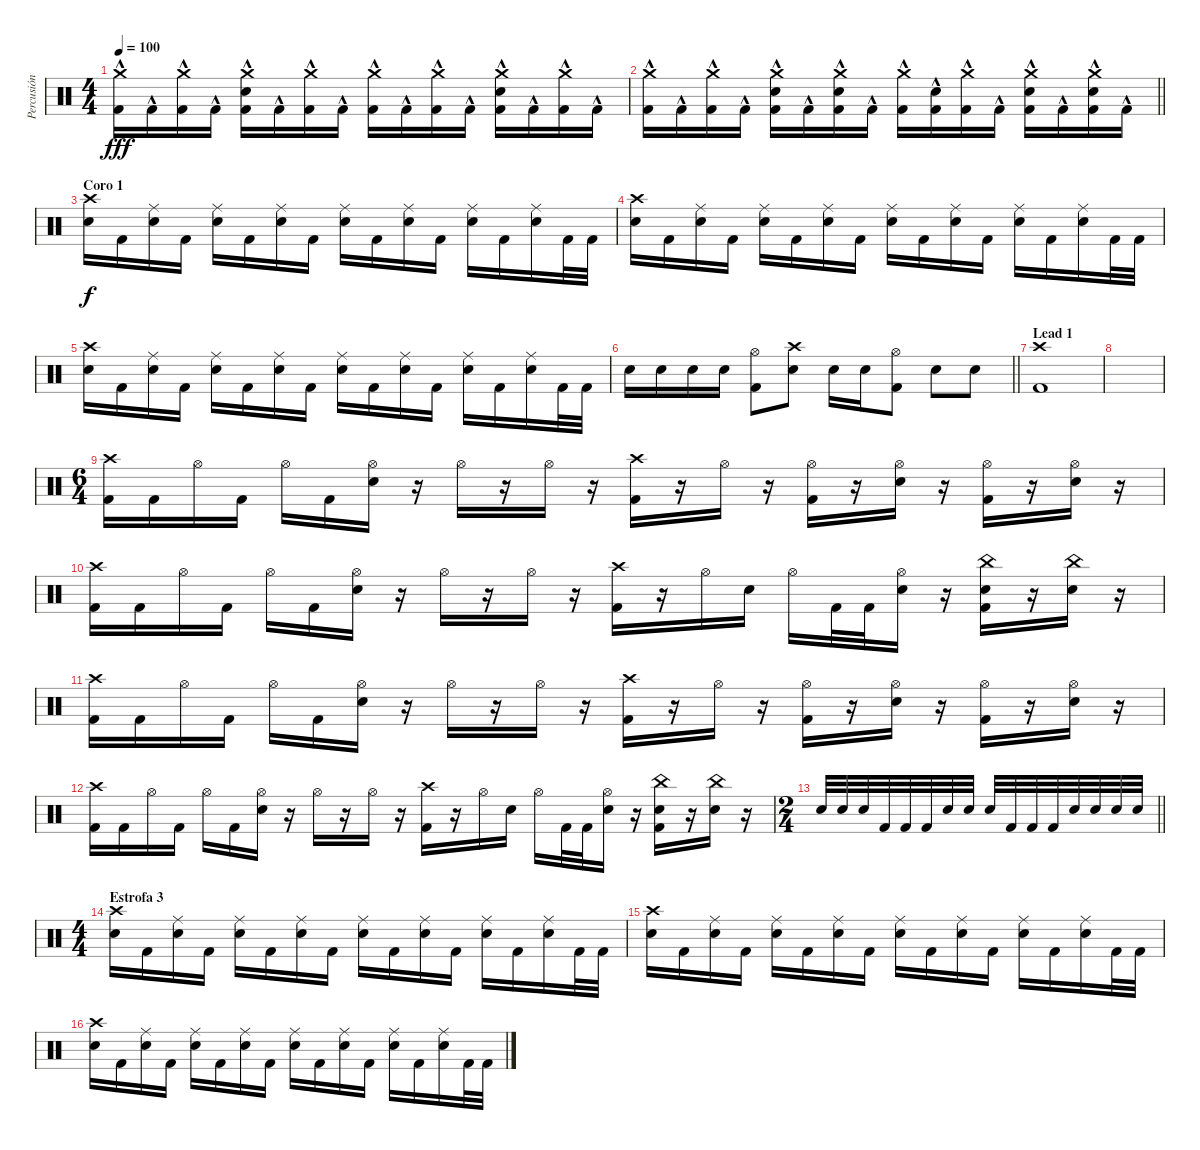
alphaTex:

\track ("Percusión" "Percusión") {instrument percussion}
\staff {score}
\articulation defaults
\ts (4 4)
\tempo 100
\clef neutral
\ks c
("Crash medium (hit)" "Kick (hit) 2"{hac}).16{dy fff} "Kick (hit) 2"{hac}.16 ("Crash medium (hit)" "Kick (hit) 2"{hac}).16 "Kick (hit) 2"{hac}.16 ("Crash medium (hit)" "Snare (hit) 2"{hac} "Kick (hit) 2"{hac}).16 "Kick (hit) 2"{hac}.16 ("Crash medium (hit)" "Kick (hit) 2"{hac}).16 "Kick (hit) 2"{hac}.16 ("Crash medium (hit)" "Kick (hit) 2"{hac}).16 "Kick (hit) 2"{hac}.16 ("Crash medium (hit)" "Kick (hit) 2"{hac}).16 "Kick (hit) 2"{hac}.16 ("Crash medium (hit)" "Snare (hit) 2"{hac} "Kick (hit) 2"{hac}).16 "Kick (hit) 2"{hac}.16 ("Crash medium (hit)" "Kick (hit) 2"{hac}).16 "Kick (hit) 2"{hac}.16 |
\barLineRight lightlight
("Crash medium (hit)" "Kick (hit) 2"{hac}).16 "Kick (hit) 2"{hac}.16 ("Crash medium (hit)" "Kick (hit) 2"{hac}).16 "Kick (hit) 2"{hac}.16 ("Crash medium (hit)" "Snare (hit) 2"{hac} "Kick (hit) 2"{hac}).16 "Kick (hit) 2"{hac}.16 ("Crash medium (hit)" "Snare (hit) 2"{hac} "Kick (hit) 2"{hac}).16 "Kick (hit) 2"{hac}.16 ("Crash medium (hit)" "Kick (hit) 2"{hac}).16 ("Snare (hit) 2"{hac} "Kick (hit) 2"{hac}).16 ("Crash medium (hit)" "Kick (hit) 2"{hac}).16 "Kick (hit) 2"{hac}.16 ("Crash medium (hit)" "Snare (hit) 2"{hac} "Kick (hit) 2"{hac}).16 "Kick (hit) 2"{hac}.16 ("Crash medium (hit)" "Snare (hit) 2"{hac} "Kick (hit) 2"{hac}).16 "Kick (hit) 2"{hac}.16 |
\section ("" "Coro 1")
("Crash high (hit)" "Snare (hit) 2").16{dy f} "Kick (hit) 2".16 ("Ride (middle)" "Snare (hit) 2").16 "Kick (hit) 2".16 ("Ride (middle)" "Snare (hit) 2").16 "Kick (hit) 2".16 ("Ride (middle)" "Snare (hit) 2").16 "Kick (hit) 2".16 ("Ride (middle)" "Snare (hit) 2").16 "Kick (hit) 2".16 ("Ride (middle)" "Snare (hit) 2").16 "Kick (hit) 2".16 ("Ride (middle)" "Snare (hit) 2").16 "Kick (hit) 2".16 ("Ride (middle)" "Snare (hit) 2").16 "Kick (hit) 2".32 "Kick (hit) 2".32 |
("Crash high (hit)" "Snare (hit) 2").16 "Kick (hit) 2".16 ("Ride (middle)" "Snare (hit) 2").16 "Kick (hit) 2".16 ("Ride (middle)" "Snare (hit) 2").16 "Kick (hit) 2".16 ("Ride (middle)" "Snare (hit) 2").16 "Kick (hit) 2".16 ("Ride (middle)" "Snare (hit) 2").16 "Kick (hit) 2".16 ("Ride (middle)" "Snare (hit) 2").16 "Kick (hit) 2".16 ("Ride (middle)" "Snare (hit) 2").16 "Kick (hit) 2".16 ("Ride (middle)" "Snare (hit) 2").16 "Kick (hit) 2".32 "Kick (hit) 2".32 |
("Crash high (hit)" "Snare (hit) 2").16 "Kick (hit) 2".16 ("Ride (middle)" "Snare (hit) 2").16 "Kick (hit) 2".16 ("Ride (middle)" "Snare (hit) 2").16 "Kick (hit) 2".16 ("Ride (middle)" "Snare (hit) 2").16 "Kick (hit) 2".16 ("Ride (middle)" "Snare (hit) 2").16 "Kick (hit) 2".16 ("Ride (middle)" "Snare (hit) 2").16 "Kick (hit) 2".16 ("Ride (middle)" "Snare (hit) 2").16 "Kick (hit) 2".16 ("Ride (middle)" "Snare (hit) 2").16 "Kick (hit) 2".32 "Kick (hit) 2".32 |
\barLineRight lightlight "Snare (hit) 2".16 "Snare (hit) 2".16 "Snare (hit) 2".16 "Snare (hit) 2".16
("Hi-Hat (open)" "Kick (hit) 2").8 ("Crash high (hit)" "Snare (hit) 2").8 "Snare (hit) 2".16 "Snare (hit) 2".16 ("Hi-Hat (open)" "Kick (hit) 2").8 "Snare (hit) 2".8 "Snare (hit) 2".8 |
\section ("" "Lead 1")
("Crash high (hit)" "Kick (hit) 2").1 |
|
\ts (6 4)
("Crash high (hit)" "Kick (hit) 2").16 "Kick (hit) 2".16 "Hi-Hat (open)".16 "Kick (hit) 2".16 "Hi-Hat (open)".16 "Kick (hit) 2".16 ("Hi-Hat (open)" "Snare (hit) 2").16 r.16 "Hi-Hat (open)".16 r.16 "Hi-Hat (open)".16 r.16 ("Crash high (hit)" "Kick (hit) 2").16 r.16 "Hi-Hat (open)".16 r.16 ("Hi-Hat (open)" "Kick (hit) 2").16 r.16 ("Hi-Hat (open)" "Snare (hit) 2").16 r.16 ("Hi-Hat (open)" "Kick (hit) 2").16 r.16 ("Hi-Hat (open)" "Snare (hit) 2").16 r.16 |
("Crash high (hit)" "Kick (hit) 2").16 "Kick (hit) 2".16 "Hi-Hat (open)".16 "Kick (hit) 2".16 "Hi-Hat (open)".16 "Kick (hit) 2".16 ("Hi-Hat (open)" "Snare (hit) 2").16 r.16 "Hi-Hat (open)".16 r.16 "Hi-Hat (open)".16 r.16 ("Crash high (hit)" "Kick (hit) 2").16 r.16 "Hi-Hat (open)".16 "Snare (hit) 2".16 "Hi-Hat (open)".16 "Kick (hit) 2".32 "Kick (hit) 2".32 ("Hi-Hat (open)" "Snare (hit) 2").16 r.16 ("China (hit)" "Snare (hit) 2" "Kick (hit) 2").16 r.16 ("China (hit)" "Snare (hit) 2").16 r.16 |
("Crash high (hit)" "Kick (hit) 2").16 "Kick (hit) 2".16 "Hi-Hat (open)".16 "Kick (hit) 2".16 "Hi-Hat (open)".16 "Kick (hit) 2".16 ("Hi-Hat (open)" "Snare (hit) 2").16 r.16 "Hi-Hat (open)".16 r.16 "Hi-Hat (open)".16 r.16 ("Crash high (hit)" "Kick (hit) 2").16 r.16 "Hi-Hat (open)".16 r.16 ("Hi-Hat (open)" "Kick (hit) 2").16 r.16 ("Hi-Hat (open)" "Snare (hit) 2").16 r.16 ("Hi-Hat (open)" "Kick (hit) 2").16 r.16 ("Hi-Hat (open)" "Snare (hit) 2").16 r.16 |
("Crash high (hit)" "Kick (hit) 2").16 "Kick (hit) 2".16 "Hi-Hat (open)".16 "Kick (hit) 2".16 "Hi-Hat (open)".16 "Kick (hit) 2".16 ("Hi-Hat (open)" "Snare (hit) 2").16 r.16 "Hi-Hat (open)".16 r.16 "Hi-Hat (open)".16 r.16 ("Crash high (hit)" "Kick (hit) 2").16 r.16 "Hi-Hat (open)".16 "Snare (hit) 2".16 "Hi-Hat (open)".16 "Kick (hit) 2".32 "Kick (hit) 2".32 ("Hi-Hat (open)" "Snare (hit) 2").16 r.16 ("China (hit)" "Snare (hit) 2" "Kick (hit) 2").16 r.16 ("China (hit)" "Snare (hit) 2").16 r.16 |
\ts (2 4)
\barLineRight lightlight "Snare (hit) 2".32 "Snare (hit) 2".32 "Snare (hit) 2".32 "Kick (hit) 2".32 "Kick (hit) 2".32 "Kick (hit) 2".32 "Snare (hit) 2".32 "Snare (hit) 2".32 "Snare (hit) 2".32 "Kick (hit) 2".32 "Kick (hit) 2".32 "Kick (hit) 2".32 "Snare (hit) 2".32 "Snare (hit) 2".32 "Snare (hit) 2".32 "Snare (hit) 2".32
|
\ts (4 4)
\section ("" "Estrofa 3")
("Crash high (hit)" "Snare (hit) 2").16 "Kick (hit) 2".16 ("Ride (middle)" "Snare (hit) 2").16 "Kick (hit) 2".16 ("Ride (middle)" "Snare (hit) 2").16 "Kick (hit) 2".16 ("Ride (middle)" "Snare (hit) 2").16 "Kick (hit) 2".16 ("Ride (middle)" "Snare (hit) 2").16 "Kick (hit) 2".16 ("Ride (middle)" "Snare (hit) 2").16 "Kick (hit) 2".16 ("Ride (middle)" "Snare (hit) 2").16 "Kick (hit) 2".16 ("Ride (middle)" "Snare (hit) 2").16 "Kick (hit) 2".32 "Kick (hit) 2".32 |
("Crash high (hit)" "Snare (hit) 2").16 "Kick (hit) 2".16 ("Ride (middle)" "Snare (hit) 2").16 "Kick (hit) 2".16 ("Ride (middle)" "Snare (hit) 2").16 "Kick (hit) 2".16 ("Ride (middle)" "Snare (hit) 2").16 "Kick (hit) 2".16 ("Ride (middle)" "Snare (hit) 2").16 "Kick (hit) 2".16 ("Ride (middle)" "Snare (hit) 2").16 "Kick (hit) 2".16 ("Ride (middle)" "Snare (hit) 2").16 "Kick (hit) 2".16 ("Ride (middle)" "Snare (hit) 2").16 "Kick (hit) 2".32 "Kick (hit) 2".32 |
("Crash high (hit)" "Snare (hit) 2").16 "Kick (hit) 2".16 ("Ride (middle)" "Snare (hit) 2").16 "Kick (hit) 2".16 ("Ride (middle)" "Snare (hit) 2").16 "Kick (hit) 2".16 ("Ride (middle)" "Snare (hit) 2").16 "Kick (hit) 2".16 ("Ride (middle)" "Snare (hit) 2").16 "Kick (hit) 2".16 ("Ride (middle)" "Snare (hit) 2").16 "Kick (hit) 2".16 ("Ride (middle)" "Snare (hit) 2").16 "Kick (hit) 2".16 ("Ride (middle)" "Snare (hit) 2").16 "Kick (hit) 2".32 "Kick (hit) 2".32
